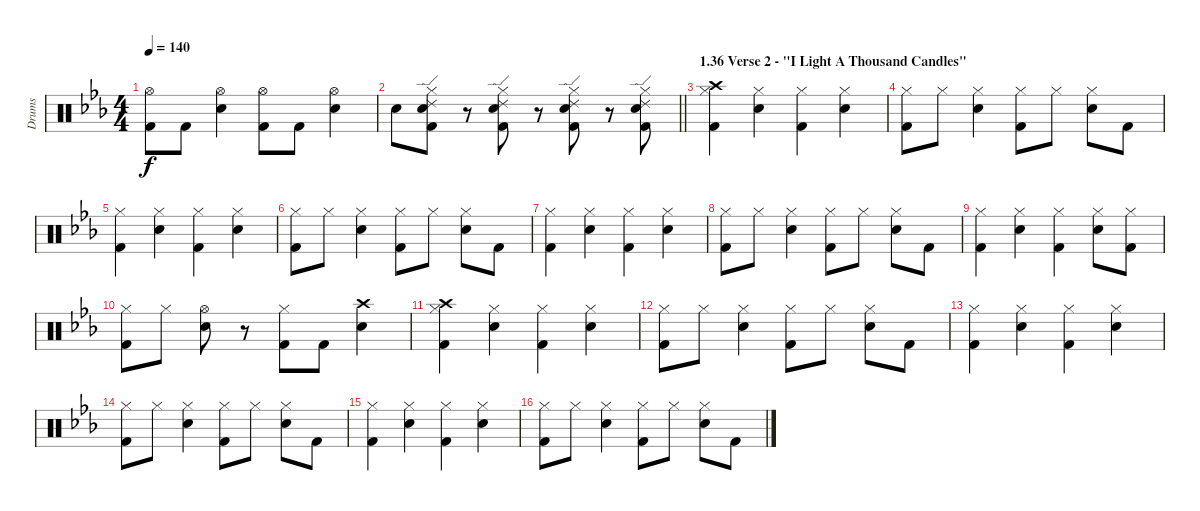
\track ("Drums" "Drums") {instrument percussion}
\staff {score}
\articulation defaults
\ts (4 4)
\tempo 140
\clef neutral
\ks cminor
("Hi-Hat (open)" "Kick (hit) 2").8{dy f} "Kick (hit) 2".8 ("Hi-Hat (open)" "Electric Snare (hit)").4 ("Hi-Hat (open)" "Kick (hit) 2").8 "Kick (hit) 2".8 ("Hi-Hat (open)" "Electric Snare (hit)").4 |
\barLineRight lightlight "Electric Snare (hit)".8
("Ride (edge) 2" "Hi-Hat (closed)" "Electric Snare (hit)" "Kick (hit) 2").8 r.8 ("Ride (edge) 2" "Hi-Hat (closed)" "Electric Snare (hit)" "Kick (hit) 2").8 r.8 ("Ride (edge) 2" "Hi-Hat (closed)" "Electric Snare (hit)" "Kick (hit) 2").8 r.8 ("Ride (edge) 2" "Hi-Hat (closed)" "Electric Snare (hit)" "Kick (hit) 2").8 |
\section ("" "1.36 Verse 2 - \"I Light A Thousand Candles\"")
("Crash high (hit)" "Hi-Hat (closed)" "Kick (hit) 2").4 ("Hi-Hat (closed)" "Electric Snare (hit)").4 ("Hi-Hat (closed)" "Kick (hit) 2").4 ("Hi-Hat (closed)" "Electric Snare (hit)").4 |
("Hi-Hat (closed)" "Kick (hit) 2").8 "Hi-Hat (closed)".8 ("Hi-Hat (closed)" "Electric Snare (hit)").4 ("Hi-Hat (closed)" "Kick (hit) 2").8 "Hi-Hat (closed)".8 ("Hi-Hat (closed)" "Electric Snare (hit)").8 "Kick (hit) 2".8 |
("Hi-Hat (closed)" "Kick (hit) 2").4 ("Hi-Hat (closed)" "Electric Snare (hit)").4 ("Hi-Hat (closed)" "Kick (hit) 2").4 ("Hi-Hat (closed)" "Electric Snare (hit)").4 |
("Hi-Hat (closed)" "Kick (hit) 2").8 "Hi-Hat (closed)".8 ("Hi-Hat (closed)" "Electric Snare (hit)").4 ("Hi-Hat (closed)" "Kick (hit) 2").8 "Hi-Hat (closed)".8 ("Hi-Hat (closed)" "Electric Snare (hit)").8 "Kick (hit) 2".8 |
("Hi-Hat (closed)" "Kick (hit) 2").4 ("Hi-Hat (closed)" "Electric Snare (hit)").4 ("Hi-Hat (closed)" "Kick (hit) 2").4 ("Hi-Hat (closed)" "Electric Snare (hit)").4 |
("Hi-Hat (closed)" "Kick (hit) 2").8 "Hi-Hat (closed)".8 ("Hi-Hat (closed)" "Electric Snare (hit)").4 ("Hi-Hat (closed)" "Kick (hit) 2").8 "Hi-Hat (closed)".8 ("Hi-Hat (closed)" "Electric Snare (hit)").8 "Kick (hit) 2".8 |
("Hi-Hat (closed)" "Kick (hit) 2").4 ("Hi-Hat (closed)" "Electric Snare (hit)").4 ("Hi-Hat (closed)" "Kick (hit) 2").4 ("Hi-Hat (closed)" "Electric Snare (hit)").8 ("Hi-Hat (closed)" "Kick (hit) 2").8 |
("Hi-Hat (closed)" "Kick (hit) 2").8 "Hi-Hat (closed)".8 ("Hi-Hat (open)" "Electric Snare (hit)").8 r.8 ("Hi-Hat (closed)" "Kick (hit) 2").8 "Kick (hit) 2".8 ("Crash high (hit)" "Electric Snare (hit)").4 |
("Crash high (hit)" "Hi-Hat (closed)" "Kick (hit) 2").4 ("Hi-Hat (closed)" "Electric Snare (hit)").4 ("Hi-Hat (closed)" "Kick (hit) 2").4 ("Hi-Hat (closed)" "Electric Snare (hit)").4 |
("Hi-Hat (closed)" "Kick (hit) 2").8 "Hi-Hat (closed)".8 ("Hi-Hat (closed)" "Electric Snare (hit)").4 ("Hi-Hat (closed)" "Kick (hit) 2").8 "Hi-Hat (closed)".8 ("Hi-Hat (closed)" "Electric Snare (hit)").8 "Kick (hit) 2".8 |
("Hi-Hat (closed)" "Kick (hit) 2").4 ("Hi-Hat (closed)" "Electric Snare (hit)").4 ("Hi-Hat (closed)" "Kick (hit) 2").4 ("Hi-Hat (closed)" "Electric Snare (hit)").4 |
("Hi-Hat (closed)" "Kick (hit) 2").8 "Hi-Hat (closed)".8 ("Hi-Hat (closed)" "Electric Snare (hit)").4 ("Hi-Hat (closed)" "Kick (hit) 2").8 "Hi-Hat (closed)".8 ("Hi-Hat (closed)" "Electric Snare (hit)").8 "Kick (hit) 2".8 |
("Hi-Hat (closed)" "Kick (hit) 2").4 ("Hi-Hat (closed)" "Electric Snare (hit)").4 ("Hi-Hat (closed)" "Kick (hit) 2").4 ("Hi-Hat (closed)" "Electric Snare (hit)").4 |
("Hi-Hat (closed)" "Kick (hit) 2").8 "Hi-Hat (closed)".8 ("Hi-Hat (closed)" "Electric Snare (hit)").4 ("Hi-Hat (closed)" "Kick (hit) 2").8 "Hi-Hat (closed)".8 ("Hi-Hat (closed)" "Electric Snare (hit)").8 "Kick (hit) 2".8
